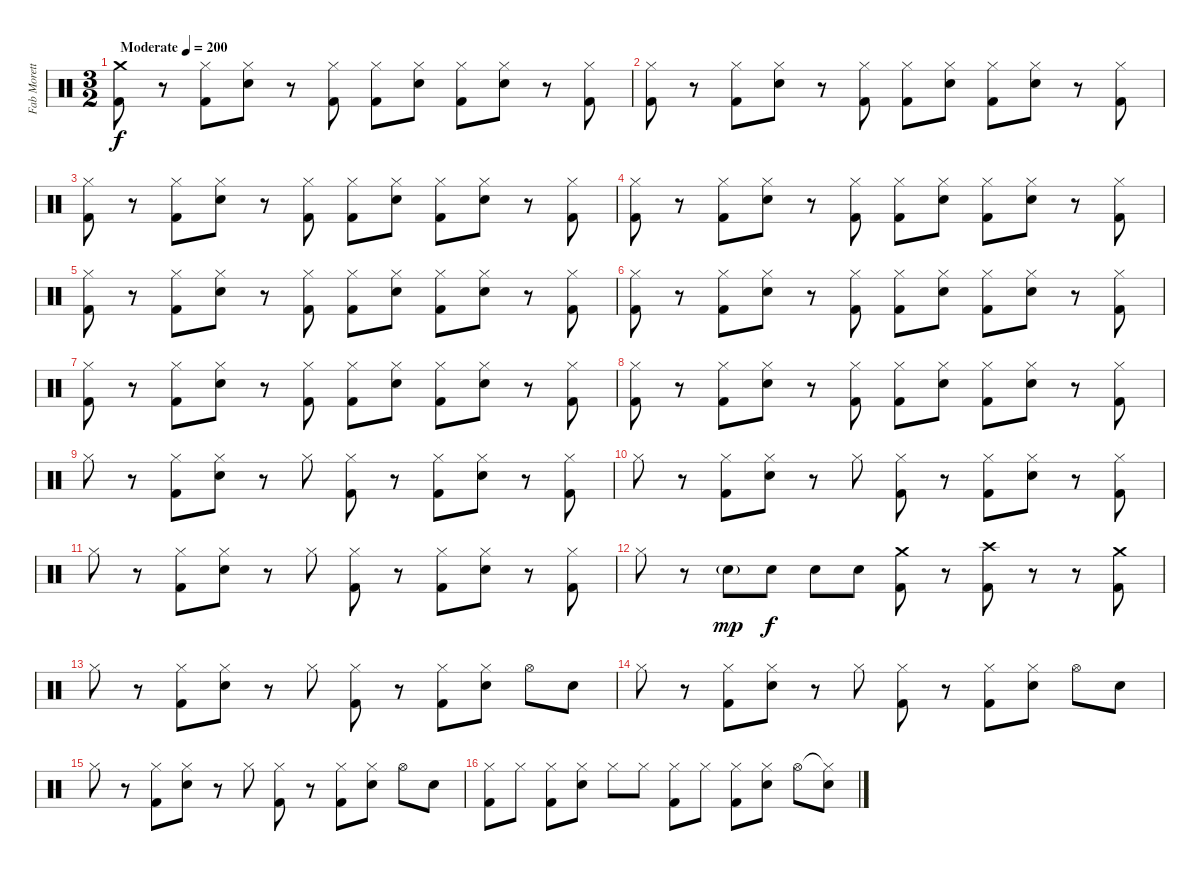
\track ("Fab Moretti" "Fab Morett") {instrument percussion}
\staff {score}
\articulation defaults
\ts (3 2)
\tempo (200 "Moderate")
\clef neutral
\ks c
("Crash medium (hit)" "Kick (hit) 2").8{dy f} r.8 ("Hi-Hat (closed)" "Kick (hit) 2").8 ("Hi-Hat (closed)" "Snare (hit) 2").8 r.8 ("Hi-Hat (closed)" "Kick (hit) 2").8 ("Hi-Hat (closed)" "Kick (hit) 2").8 ("Hi-Hat (closed)" "Snare (hit) 2").8 ("Hi-Hat (closed)" "Kick (hit) 2").8 ("Hi-Hat (closed)" "Snare (hit) 2").8 r.8 ("Hi-Hat (closed)" "Kick (hit) 2").8 |
("Hi-Hat (closed)" "Kick (hit) 2").8 r.8 ("Hi-Hat (closed)" "Kick (hit) 2").8 ("Hi-Hat (closed)" "Snare (hit) 2").8 r.8 ("Hi-Hat (closed)" "Kick (hit) 2").8 ("Hi-Hat (closed)" "Kick (hit) 2").8 ("Hi-Hat (closed)" "Snare (hit) 2").8 ("Hi-Hat (closed)" "Kick (hit) 2").8 ("Hi-Hat (closed)" "Snare (hit) 2").8 r.8 ("Hi-Hat (closed)" "Kick (hit) 2").8 |
("Hi-Hat (closed)" "Kick (hit) 2").8 r.8 ("Hi-Hat (closed)" "Kick (hit) 2").8 ("Hi-Hat (closed)" "Snare (hit) 2").8 r.8 ("Hi-Hat (closed)" "Kick (hit) 2").8 ("Hi-Hat (closed)" "Kick (hit) 2").8 ("Hi-Hat (closed)" "Snare (hit) 2").8 ("Hi-Hat (closed)" "Kick (hit) 2").8 ("Hi-Hat (closed)" "Snare (hit) 2").8 r.8 ("Hi-Hat (closed)" "Kick (hit) 2").8 |
("Hi-Hat (closed)" "Kick (hit) 2").8 r.8 ("Hi-Hat (closed)" "Kick (hit) 2").8 ("Hi-Hat (closed)" "Snare (hit) 2").8 r.8 ("Hi-Hat (closed)" "Kick (hit) 2").8 ("Hi-Hat (closed)" "Kick (hit) 2").8 ("Hi-Hat (closed)" "Snare (hit) 2").8 ("Hi-Hat (closed)" "Kick (hit) 2").8 ("Hi-Hat (closed)" "Snare (hit) 2").8 r.8 ("Hi-Hat (closed)" "Kick (hit) 2").8 |
("Hi-Hat (closed)" "Kick (hit) 2").8 r.8 ("Hi-Hat (closed)" "Kick (hit) 2").8 ("Hi-Hat (closed)" "Snare (hit) 2").8 r.8 ("Hi-Hat (closed)" "Kick (hit) 2").8 ("Hi-Hat (closed)" "Kick (hit) 2").8 ("Hi-Hat (closed)" "Snare (hit) 2").8 ("Hi-Hat (closed)" "Kick (hit) 2").8 ("Hi-Hat (closed)" "Snare (hit) 2").8 r.8 ("Hi-Hat (closed)" "Kick (hit) 2").8 |
("Hi-Hat (closed)" "Kick (hit) 2").8 r.8 ("Hi-Hat (closed)" "Kick (hit) 2").8 ("Hi-Hat (closed)" "Snare (hit) 2").8 r.8 ("Hi-Hat (closed)" "Kick (hit) 2").8 ("Hi-Hat (closed)" "Kick (hit) 2").8 ("Hi-Hat (closed)" "Snare (hit) 2").8 ("Hi-Hat (closed)" "Kick (hit) 2").8 ("Hi-Hat (closed)" "Snare (hit) 2").8 r.8 ("Hi-Hat (closed)" "Kick (hit) 2").8 |
("Hi-Hat (closed)" "Kick (hit) 2").8 r.8 ("Hi-Hat (closed)" "Kick (hit) 2").8 ("Hi-Hat (closed)" "Snare (hit) 2").8 r.8 ("Hi-Hat (closed)" "Kick (hit) 2").8 ("Hi-Hat (closed)" "Kick (hit) 2").8 ("Hi-Hat (closed)" "Snare (hit) 2").8 ("Hi-Hat (closed)" "Kick (hit) 2").8 ("Hi-Hat (closed)" "Snare (hit) 2").8 r.8 ("Hi-Hat (closed)" "Kick (hit) 2").8 |
("Hi-Hat (closed)" "Kick (hit) 2").8 r.8 ("Hi-Hat (closed)" "Kick (hit) 2").8 ("Hi-Hat (closed)" "Snare (hit) 2").8 r.8 ("Hi-Hat (closed)" "Kick (hit) 2").8 ("Hi-Hat (closed)" "Kick (hit) 2").8 ("Hi-Hat (closed)" "Snare (hit) 2").8 ("Hi-Hat (closed)" "Kick (hit) 2").8 ("Hi-Hat (closed)" "Snare (hit) 2").8 r.8 ("Hi-Hat (closed)" "Kick (hit) 2").8 |
"Hi-Hat (closed)".8 r.8 ("Hi-Hat (closed)" "Kick (hit) 2").8 ("Hi-Hat (closed)" "Snare (hit) 2").8 r.8 "Hi-Hat (closed)".8 ("Hi-Hat (closed)" "Kick (hit) 2").8 r.8 ("Hi-Hat (closed)" "Kick (hit) 2").8 ("Hi-Hat (closed)" "Snare (hit) 2").8 r.8 ("Hi-Hat (closed)" "Kick (hit) 2").8 |
"Hi-Hat (closed)".8 r.8 ("Hi-Hat (closed)" "Kick (hit) 2").8 ("Hi-Hat (closed)" "Snare (hit) 2").8 r.8 "Hi-Hat (closed)".8 ("Hi-Hat (closed)" "Kick (hit) 2").8 r.8 ("Hi-Hat (closed)" "Kick (hit) 2").8 ("Hi-Hat (closed)" "Snare (hit) 2").8 r.8 ("Hi-Hat (closed)" "Kick (hit) 2").8 |
"Hi-Hat (closed)".8 r.8 ("Hi-Hat (closed)" "Kick (hit) 2").8 ("Hi-Hat (closed)" "Snare (hit) 2").8 r.8 "Hi-Hat (closed)".8 ("Hi-Hat (closed)" "Kick (hit) 2").8 r.8 ("Hi-Hat (closed)" "Kick (hit) 2").8 ("Hi-Hat (closed)" "Snare (hit) 2").8 r.8 ("Hi-Hat (closed)" "Kick (hit) 2").8 |
"Hi-Hat (closed)".8 r.8 "Snare (hit) 2"{g}.8{dy mp} "Snare (hit) 2".8{dy f} "Snare (hit) 2".8 "Snare (hit) 2".8 ("Crash medium (hit)" "Kick (hit) 2").8 r.8 ("Crash high (hit)" "Kick (hit) 2").8 r.8 r.8 ("Crash medium (hit)" "Kick (hit) 2").8 |
"Hi-Hat (closed)".8 r.8 ("Hi-Hat (closed)" "Kick (hit) 2").8 ("Hi-Hat (closed)" "Snare (hit) 2").8 r.8 "Hi-Hat (closed)".8 ("Hi-Hat (closed)" "Kick (hit) 2").8 r.8 ("Hi-Hat (closed)" "Kick (hit) 2").8 ("Hi-Hat (closed)" "Snare (hit) 2").8 "Hi-Hat (open)".8 "Snare (hit) 2".8 |
"Hi-Hat (closed)".8 r.8 ("Hi-Hat (closed)" "Kick (hit) 2").8 ("Hi-Hat (closed)" "Snare (hit) 2").8 r.8 "Hi-Hat (closed)".8 ("Hi-Hat (closed)" "Kick (hit) 2").8 r.8 ("Hi-Hat (closed)" "Kick (hit) 2").8 ("Hi-Hat (closed)" "Snare (hit) 2").8 "Hi-Hat (open)".8 "Snare (hit) 2".8 |
"Hi-Hat (closed)".8 r.8 ("Hi-Hat (closed)" "Kick (hit) 2").8 ("Hi-Hat (closed)" "Snare (hit) 2").8 r.8 "Hi-Hat (closed)".8 ("Hi-Hat (closed)" "Kick (hit) 2").8 r.8 ("Hi-Hat (closed)" "Kick (hit) 2").8 ("Hi-Hat (closed)" "Snare (hit) 2").8 "Hi-Hat (open)".8 "Snare (hit) 2".8 |
("Hi-Hat (closed)" "Kick (hit) 2").8 "Hi-Hat (closed)".8 ("Hi-Hat (closed)" "Kick (hit) 2").8 ("Hi-Hat (closed)" "Snare (hit) 2").8 "Hi-Hat (closed)".8 "Hi-Hat (closed)".8 ("Hi-Hat (closed)" "Kick (hit) 2").8 "Hi-Hat (closed)".8 ("Hi-Hat (closed)" "Kick (hit) 2").8 ("Hi-Hat (closed)" "Snare (hit) 2").8 "Hi-Hat (open)".8 ("Hi-Hat (closed)"{t} "Snare (hit) 2").8
